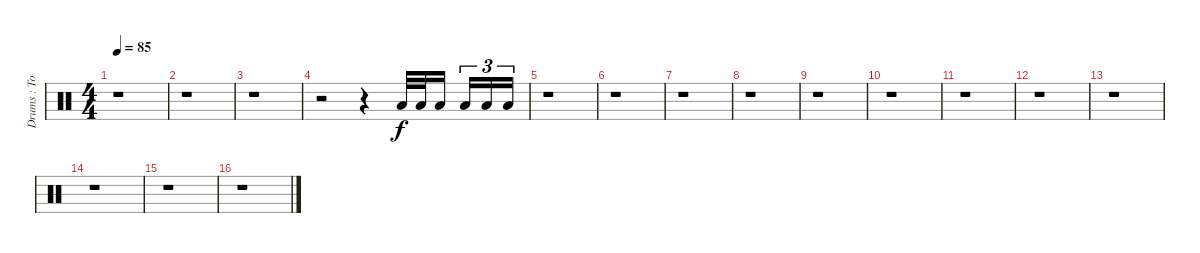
\track ("Drums : Toms" "Drums : To") {instrument percussion}
\staff {score}
\articulation defaults
\ts (4 4)
\tempo 85
\clef neutral
\ks c
r.1{dy f} |
r.1 |
r.1 |
r.2 r.4 "Low Tom (hit)".32 "Low Tom (hit)".32 "Low Tom (hit)".16 "Low Tom (hit)".16{tu (3 2)} "Low Tom (hit)".16{tu (3 2)} "Low Tom (hit)".16{tu (3 2)} |
r.1 |
r.1 |
r.1 |
r.1 |
r.1 |
r.1 |
r.1 |
r.1 |
r.1 |
r.1 |
r.1 |
r.1
